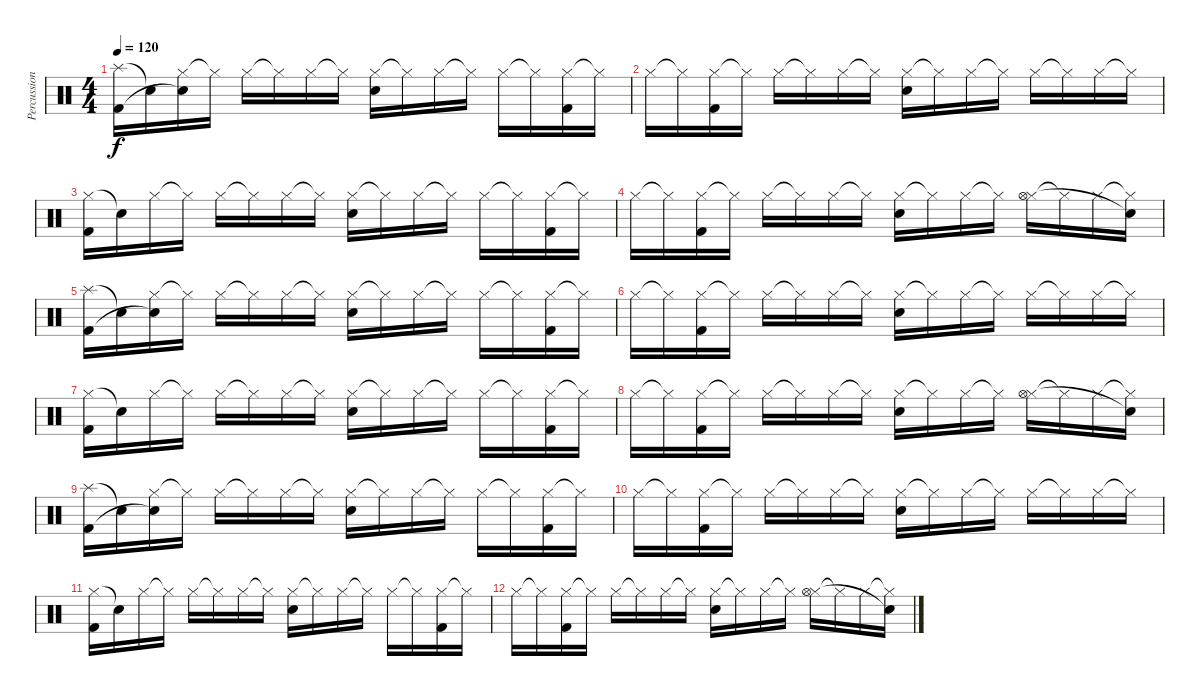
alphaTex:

\track ("Percussion" "Percussion") {instrument percussion}
\staff {score}
\articulation defaults
\ts (4 4)
\tempo 120
\clef neutral
\ks c
("Splash (hit)" "Kick (hit) 2").16{dy f} "Snare (hit)"{t}.16 ("Hi-Hat (closed)" "Snare (hit)"{t}).16 "Hi-Hat (closed)"{t}.16 "Hi-Hat (closed)".16 "Hi-Hat (closed)"{t}.16 "Hi-Hat (closed)".16 "Hi-Hat (closed)"{t}.16 ("Hi-Hat (closed)" "Snare (hit) 2").16 "Hi-Hat (closed)"{t}.16 "Hi-Hat (closed)".16 "Hi-Hat (closed)"{t}.16 "Hi-Hat (closed)".16 "Hi-Hat (closed)"{t}.16 ("Hi-Hat (closed)" "Kick (hit) 2").16 "Hi-Hat (closed)"{t}.16 |
"Hi-Hat (closed)".16 "Hi-Hat (closed)"{t}.16 ("Hi-Hat (closed)" "Kick (hit) 2").16 "Hi-Hat (closed)"{t}.16 "Hi-Hat (closed)".16 "Hi-Hat (closed)"{t}.16 "Hi-Hat (closed)".16 "Hi-Hat (closed)"{t}.16 ("Hi-Hat (closed)" "Snare (hit) 2").16 "Hi-Hat (closed)"{t}.16 "Hi-Hat (closed)".16 "Hi-Hat (closed)"{t}.16 "Hi-Hat (closed)".16 "Hi-Hat (closed)"{t}.16 "Hi-Hat (closed)".16 "Hi-Hat (closed)"{t}.16 |
("Hi-Hat (closed)" "Kick (hit) 2").16 "Snare (hit)"{t}.16 "Hi-Hat (closed)".16 "Hi-Hat (closed)"{t}.16 "Hi-Hat (closed)".16 "Hi-Hat (closed)"{t}.16 "Hi-Hat (closed)".16 "Hi-Hat (closed)"{t}.16 ("Hi-Hat (closed)" "Snare (hit) 2").16 "Hi-Hat (closed)"{t}.16 "Hi-Hat (closed)".16 "Hi-Hat (closed)"{t}.16 "Hi-Hat (closed)".16 "Hi-Hat (closed)"{t}.16 ("Hi-Hat (closed)" "Kick (hit) 2").16 "Hi-Hat (closed)"{t}.16 |
"Hi-Hat (closed)".16 "Hi-Hat (closed)"{t}.16 ("Hi-Hat (closed)" "Kick (hit) 2").16 "Hi-Hat (closed)"{t}.16 "Hi-Hat (closed)".16 "Hi-Hat (closed)"{t}.16 "Hi-Hat (closed)".16 "Hi-Hat (closed)"{t}.16 ("Hi-Hat (closed)" "Snare (hit) 2").16 "Hi-Hat (closed)"{t}.16 "Hi-Hat (closed)".16 "Hi-Hat (closed)"{t}.16 ("Hi-Hat (closed)" "Hi-Hat (open)").16 "Hi-Hat (closed)"{t}.16 "Hi-Hat (closed)".16 ("Hi-Hat (closed)"{t} "Snare (hit)"{t}).16 |
("Splash (hit)" "Kick (hit) 2").16 "Snare (hit)"{t}.16 ("Hi-Hat (closed)" "Snare (hit)"{t}).16 "Hi-Hat (closed)"{t}.16 "Hi-Hat (closed)".16 "Hi-Hat (closed)"{t}.16 "Hi-Hat (closed)".16 "Hi-Hat (closed)"{t}.16 ("Hi-Hat (closed)" "Snare (hit) 2").16 "Hi-Hat (closed)"{t}.16 "Hi-Hat (closed)".16 "Hi-Hat (closed)"{t}.16 "Hi-Hat (closed)".16 "Hi-Hat (closed)"{t}.16 ("Hi-Hat (closed)" "Kick (hit) 2").16 "Hi-Hat (closed)"{t}.16 |
"Hi-Hat (closed)".16 "Hi-Hat (closed)"{t}.16 ("Hi-Hat (closed)" "Kick (hit) 2").16 "Hi-Hat (closed)"{t}.16 "Hi-Hat (closed)".16 "Hi-Hat (closed)"{t}.16 "Hi-Hat (closed)".16 "Hi-Hat (closed)"{t}.16 ("Hi-Hat (closed)" "Snare (hit) 2").16 "Hi-Hat (closed)"{t}.16 "Hi-Hat (closed)".16 "Hi-Hat (closed)"{t}.16 "Hi-Hat (closed)".16 "Hi-Hat (closed)"{t}.16 "Hi-Hat (closed)".16 "Hi-Hat (closed)"{t}.16 |
("Hi-Hat (closed)" "Kick (hit) 2").16 "Snare (hit)"{t}.16 "Hi-Hat (closed)".16 "Hi-Hat (closed)"{t}.16 "Hi-Hat (closed)".16 "Hi-Hat (closed)"{t}.16 "Hi-Hat (closed)".16 "Hi-Hat (closed)"{t}.16 ("Hi-Hat (closed)" "Snare (hit) 2").16 "Hi-Hat (closed)"{t}.16 "Hi-Hat (closed)".16 "Hi-Hat (closed)"{t}.16 "Hi-Hat (closed)".16 "Hi-Hat (closed)"{t}.16 ("Hi-Hat (closed)" "Kick (hit) 2").16 "Hi-Hat (closed)"{t}.16 |
"Hi-Hat (closed)".16 "Hi-Hat (closed)"{t}.16 ("Hi-Hat (closed)" "Kick (hit) 2").16 "Hi-Hat (closed)"{t}.16 "Hi-Hat (closed)".16 "Hi-Hat (closed)"{t}.16 "Hi-Hat (closed)".16 "Hi-Hat (closed)"{t}.16 ("Hi-Hat (closed)" "Snare (hit) 2").16 "Hi-Hat (closed)"{t}.16 "Hi-Hat (closed)".16 "Hi-Hat (closed)"{t}.16 ("Hi-Hat (closed)" "Hi-Hat (open)").16 "Hi-Hat (closed)"{t}.16 "Hi-Hat (closed)".16 ("Hi-Hat (closed)"{t} "Snare (hit)"{t}).16 |
("Splash (hit)" "Kick (hit) 2").16 "Snare (hit)"{t}.16 ("Hi-Hat (closed)" "Snare (hit)"{t}).16 "Hi-Hat (closed)"{t}.16 "Hi-Hat (closed)".16 "Hi-Hat (closed)"{t}.16 "Hi-Hat (closed)".16 "Hi-Hat (closed)"{t}.16 ("Hi-Hat (closed)" "Snare (hit) 2").16 "Hi-Hat (closed)"{t}.16 "Hi-Hat (closed)".16 "Hi-Hat (closed)"{t}.16 "Hi-Hat (closed)".16 "Hi-Hat (closed)"{t}.16 ("Hi-Hat (closed)" "Kick (hit) 2").16 "Hi-Hat (closed)"{t}.16 |
"Hi-Hat (closed)".16 "Hi-Hat (closed)"{t}.16 ("Hi-Hat (closed)" "Kick (hit) 2").16 "Hi-Hat (closed)"{t}.16 "Hi-Hat (closed)".16 "Hi-Hat (closed)"{t}.16 "Hi-Hat (closed)".16 "Hi-Hat (closed)"{t}.16 ("Hi-Hat (closed)" "Snare (hit) 2").16 "Hi-Hat (closed)"{t}.16 "Hi-Hat (closed)".16 "Hi-Hat (closed)"{t}.16 "Hi-Hat (closed)".16 "Hi-Hat (closed)"{t}.16 "Hi-Hat (closed)".16 "Hi-Hat (closed)"{t}.16 |
("Hi-Hat (closed)" "Kick (hit) 2").16 "Snare (hit)"{t}.16 "Hi-Hat (closed)".16 "Hi-Hat (closed)"{t}.16 "Hi-Hat (closed)".16 "Hi-Hat (closed)"{t}.16 "Hi-Hat (closed)".16 "Hi-Hat (closed)"{t}.16 ("Hi-Hat (closed)" "Snare (hit) 2").16 "Hi-Hat (closed)"{t}.16 "Hi-Hat (closed)".16 "Hi-Hat (closed)"{t}.16 "Hi-Hat (closed)".16 "Hi-Hat (closed)"{t}.16 ("Hi-Hat (closed)" "Kick (hit) 2").16 "Hi-Hat (closed)"{t}.16 |
"Hi-Hat (closed)".16 "Hi-Hat (closed)"{t}.16 ("Hi-Hat (closed)" "Kick (hit) 2").16 "Hi-Hat (closed)"{t}.16 "Hi-Hat (closed)".16 "Hi-Hat (closed)"{t}.16 "Hi-Hat (closed)".16 "Hi-Hat (closed)"{t}.16 ("Hi-Hat (closed)" "Snare (hit) 2").16 "Hi-Hat (closed)"{t}.16 "Hi-Hat (closed)".16 "Hi-Hat (closed)"{t}.16 ("Hi-Hat (closed)" "Hi-Hat (open)").16 "Hi-Hat (closed)"{t}.16 "Hi-Hat (closed)".16 ("Hi-Hat (closed)"{t} "Snare (hit)"{t}).16
